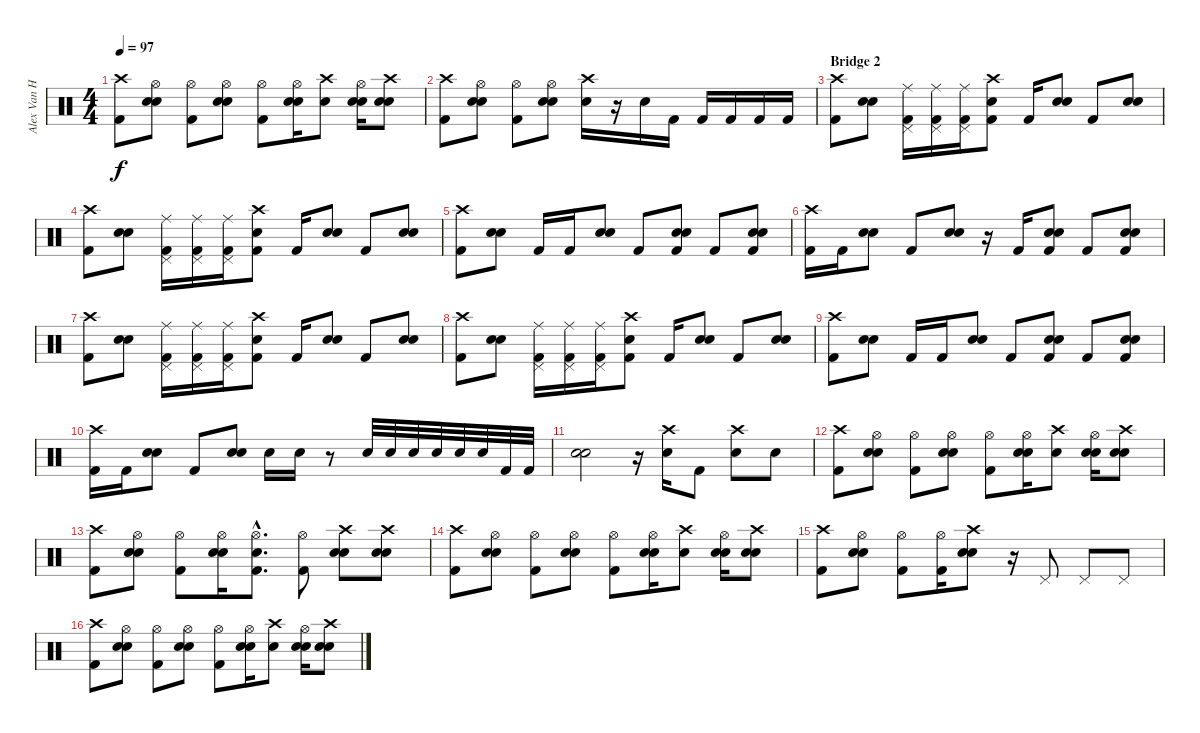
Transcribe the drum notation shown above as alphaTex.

\track ("Alex Van Halen" "Alex Van H") {instrument percussion}
\staff {score}
\articulation defaults
\ts (4 4)
\tempo 97
\clef neutral
\ks c
("Crash high (hit)" "Kick (hit) 2").8{dy f} ("Hi-Hat (open)" "Snare (hit) 2" "Electric Snare (hit)").8 ("Hi-Hat (open)" "Kick (hit) 2").8 ("Hi-Hat (open)" "Snare (hit) 2" "Electric Snare (hit)").8 ("Hi-Hat (open)" "Kick (hit) 2").8 ("Hi-Hat (open)" "Snare (hit) 2" "Electric Snare (hit)").16 ("Crash high (hit)" "Electric Snare (hit)").8 ("Hi-Hat (open)" "Snare (hit) 2" "Electric Snare (hit)").16 ("Crash high (hit)" "Snare (hit) 2" "Electric Snare (hit)").8 |
("Crash high (hit)" "Kick (hit) 2").8 ("Hi-Hat (open)" "Snare (hit) 2" "Electric Snare (hit)").8 ("Hi-Hat (open)" "Kick (hit) 2").8 ("Hi-Hat (open)" "Snare (hit) 2" "Electric Snare (hit)").8 ("Crash high (hit)" "Electric Snare (hit)").16 r.16 "Snare (hit) 2".16 "Kick (hit) 2".16 "Kick (hit) 2".16 "Kick (hit) 2".16 "Kick (hit) 2".16 "Kick (hit) 2".16 |
\section ("" "Bridge 2")
("Crash high (hit)" "Kick (hit) 2").8 ("Electric Snare (hit)" "Snare (hit) 2").8 ("Ride (middle)" "Pedal Hi-Hat (hit)" "Kick (hit) 2").16 ("Ride (middle)" "Pedal Hi-Hat (hit)" "Kick (hit) 2").16 ("Ride (middle)" "Pedal Hi-Hat (hit)" "Kick (hit) 2").16 ("Crash high (hit)" "Snare (hit) 2" "Kick (hit) 2").8 "Kick (hit) 2".16 ("Electric Snare (hit)" "Snare (hit) 2").8 "Kick (hit) 2".8 ("Electric Snare (hit)" "Snare (hit) 2").8 |
("Crash high (hit)" "Kick (hit) 2").8 ("Electric Snare (hit)" "Snare (hit) 2").8 ("Ride (middle)" "Pedal Hi-Hat (hit)" "Kick (hit) 2").16 ("Ride (middle)" "Pedal Hi-Hat (hit)" "Kick (hit) 2").16 ("Ride (middle)" "Pedal Hi-Hat (hit)" "Kick (hit) 2").16 ("Crash high (hit)" "Snare (hit) 2" "Kick (hit) 2").8 "Kick (hit) 2".16 ("Electric Snare (hit)" "Snare (hit) 2").8 "Kick (hit) 2".8 ("Electric Snare (hit)" "Snare (hit) 2").8 |
("Crash high (hit)" "Kick (hit) 2").8 ("Electric Snare (hit)" "Snare (hit) 2").8 "Kick (hit) 2".16 "Kick (hit) 2".16 ("Electric Snare (hit)" "Snare (hit) 2").8 "Kick (hit) 2".8 ("Electric Snare (hit)" "Snare (hit) 2" "Kick (hit) 2").8 "Kick (hit) 2".8 ("Electric Snare (hit)" "Snare (hit) 2" "Kick (hit) 2").8 |
("Crash high (hit)" "Kick (hit) 2").16 "Kick (hit) 2".16 ("Electric Snare (hit)" "Snare (hit) 2").8 "Kick (hit) 2".8 ("Electric Snare (hit)" "Snare (hit) 2").8 r.16 "Kick (hit) 2".16 ("Electric Snare (hit)" "Snare (hit) 2" "Kick (hit) 2").8 "Kick (hit) 2".8 ("Electric Snare (hit)" "Snare (hit) 2" "Kick (hit) 2").8 |
("Crash high (hit)" "Kick (hit) 2").8 ("Electric Snare (hit)" "Snare (hit) 2").8 ("Ride (middle)" "Pedal Hi-Hat (hit)" "Kick (hit) 2").16 ("Ride (middle)" "Pedal Hi-Hat (hit)" "Kick (hit) 2").16 ("Ride (middle)" "Pedal Hi-Hat (hit)" "Kick (hit) 2").16 ("Crash high (hit)" "Snare (hit) 2" "Kick (hit) 2").8 "Kick (hit) 2".16 ("Electric Snare (hit)" "Snare (hit) 2").8 "Kick (hit) 2".8 ("Electric Snare (hit)" "Snare (hit) 2").8 |
("Crash high (hit)" "Kick (hit) 2").8 ("Electric Snare (hit)" "Snare (hit) 2").8 ("Ride (middle)" "Pedal Hi-Hat (hit)" "Kick (hit) 2").16 ("Ride (middle)" "Pedal Hi-Hat (hit)" "Kick (hit) 2").16 ("Ride (middle)" "Pedal Hi-Hat (hit)" "Kick (hit) 2").16 ("Crash high (hit)" "Snare (hit) 2" "Kick (hit) 2").8 "Kick (hit) 2".16 ("Electric Snare (hit)" "Snare (hit) 2").8 "Kick (hit) 2".8 ("Electric Snare (hit)" "Snare (hit) 2").8 |
("Crash high (hit)" "Kick (hit) 2").8 ("Electric Snare (hit)" "Snare (hit) 2").8 "Kick (hit) 2".16 "Kick (hit) 2".16 ("Electric Snare (hit)" "Snare (hit) 2").8 "Kick (hit) 2".8 ("Electric Snare (hit)" "Snare (hit) 2" "Kick (hit) 2").8 "Kick (hit) 2".8 ("Electric Snare (hit)" "Snare (hit) 2" "Kick (hit) 2").8 |
("Crash high (hit)" "Kick (hit) 2").16 "Kick (hit) 2".16 ("Electric Snare (hit)" "Snare (hit) 2").8 "Kick (hit) 2".8 ("Electric Snare (hit)" "Snare (hit) 2").8 "Snare (hit) 2".16 "Snare (hit) 2".16 r.8 "Electric Snare (hit)".32 "Electric Snare (hit)".32 "Electric Snare (hit)".32 "Electric Snare (hit)".32 "Snare (hit) 2".32 "Snare (hit) 2".32 "Kick (hit) 2".32 "Kick (hit) 2".32 |
("Electric Snare (hit)" "Snare (hit) 2").2 r.16 ("Crash high (hit)" "Snare (hit) 2").16 "Kick (hit) 2".8 ("Crash high (hit)" "Snare (hit) 2").8 "Snare (hit) 2".8 |
("Crash high (hit)" "Kick (hit) 2").8 ("Hi-Hat (open)" "Snare (hit) 2" "Electric Snare (hit)").8 ("Hi-Hat (open)" "Kick (hit) 2").8 ("Hi-Hat (open)" "Snare (hit) 2" "Electric Snare (hit)").8 ("Hi-Hat (open)" "Kick (hit) 2").8 ("Hi-Hat (open)" "Snare (hit) 2" "Electric Snare (hit)").16 ("Crash high (hit)" "Electric Snare (hit)").8 ("Hi-Hat (open)" "Snare (hit) 2" "Electric Snare (hit)").16 ("Crash high (hit)" "Snare (hit) 2" "Electric Snare (hit)").8 |
("Crash high (hit)" "Kick (hit) 2").8 ("Hi-Hat (open)" "Snare (hit) 2" "Electric Snare (hit)").8 ("Hi-Hat (open)" "Kick (hit) 2").8 ("Hi-Hat (open)" "Snare (hit) 2" "Electric Snare (hit)").16 ("Hi-Hat (open)"{hac} "Electric Snare (hit)"{hac} "Kick (hit) 2"{hac}).8{d} ("Hi-Hat (open)" "Kick (hit) 2").8 ("Crash high (hit)" "Snare (hit) 2" "Electric Snare (hit)").8 ("Crash high (hit)" "Snare (hit) 2" "Electric Snare (hit)").8 |
("Crash high (hit)" "Kick (hit) 2").8 ("Hi-Hat (open)" "Snare (hit) 2" "Electric Snare (hit)").8 ("Hi-Hat (open)" "Kick (hit) 2").8 ("Hi-Hat (open)" "Snare (hit) 2" "Electric Snare (hit)").8 ("Hi-Hat (open)" "Kick (hit) 2").8 ("Hi-Hat (open)" "Snare (hit) 2" "Electric Snare (hit)").16 ("Crash high (hit)" "Electric Snare (hit)").8 ("Hi-Hat (open)" "Snare (hit) 2" "Electric Snare (hit)").16 ("Crash high (hit)" "Snare (hit) 2" "Electric Snare (hit)").8 |
("Crash high (hit)" "Kick (hit) 2").8 ("Hi-Hat (open)" "Snare (hit) 2" "Electric Snare (hit)").8 ("Hi-Hat (open)" "Kick (hit) 2").8 ("Hi-Hat (open)" "Kick (hit) 2").16 ("Crash high (hit)" "Electric Snare (hit)" "Snare (hit) 2").8 r.16 "Pedal Hi-Hat (hit)".8 "Pedal Hi-Hat (hit)".8 "Pedal Hi-Hat (hit)".8 |
("Crash high (hit)" "Kick (hit) 2").8 ("Hi-Hat (open)" "Snare (hit) 2" "Electric Snare (hit)").8 ("Hi-Hat (open)" "Kick (hit) 2").8 ("Hi-Hat (open)" "Snare (hit) 2" "Electric Snare (hit)").8 ("Hi-Hat (open)" "Kick (hit) 2").8 ("Hi-Hat (open)" "Snare (hit) 2" "Electric Snare (hit)").16 ("Crash high (hit)" "Electric Snare (hit)").8 ("Hi-Hat (open)" "Snare (hit) 2" "Electric Snare (hit)").16 ("Crash high (hit)" "Snare (hit) 2" "Electric Snare (hit)").8
